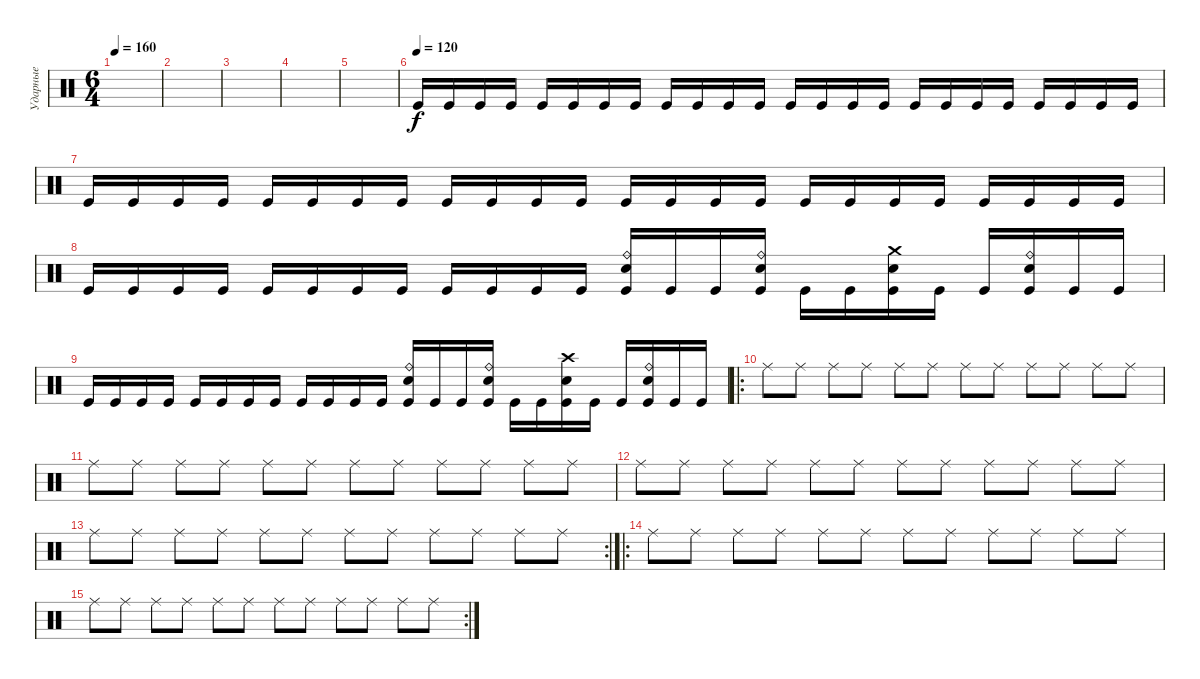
\track ("Ударные" "Ударные") {instrument percussion}
\staff {score}
\articulation defaults
\ts (6 4)
\tempo 160
\clef neutral
\ks c
|
|
|
|
|
\tempo (120)
"Kick (hit)".16 "Kick (hit)".16 "Kick (hit)".16 "Kick (hit)".16 "Kick (hit)".16 "Kick (hit)".16 "Kick (hit)".16 "Kick (hit)".16 "Kick (hit)".16 "Kick (hit)".16 "Kick (hit)".16 "Kick (hit)".16 "Kick (hit)".16 "Kick (hit)".16 "Kick (hit)".16 "Kick (hit)".16 "Kick (hit)".16 "Kick (hit)".16 "Kick (hit)".16 "Kick (hit)".16 "Kick (hit)".16 "Kick (hit)".16 "Kick (hit)".16 "Kick (hit)".16 |
"Kick (hit)".16 "Kick (hit)".16 "Kick (hit)".16 "Kick (hit)".16 "Kick (hit)".16 "Kick (hit)".16 "Kick (hit)".16 "Kick (hit)".16 "Kick (hit)".16 "Kick (hit)".16 "Kick (hit)".16 "Kick (hit)".16 "Kick (hit)".16 "Kick (hit)".16 "Kick (hit)".16 "Kick (hit)".16 "Kick (hit)".16 "Kick (hit)".16 "Kick (hit)".16 "Kick (hit)".16 "Kick (hit)".16 "Kick (hit)".16 "Kick (hit)".16 "Kick (hit)".16 |
"Kick (hit)".16 "Kick (hit)".16 "Kick (hit)".16 "Kick (hit)".16 "Kick (hit)".16 "Kick (hit)".16 "Kick (hit)".16 "Kick (hit)".16 "Kick (hit)".16 "Kick (hit)".16 "Kick (hit)".16 "Kick (hit)".16 ("Ride (bell)" "Electric Snare (hit)" "Kick (hit)").16 "Kick (hit)".16 "Kick (hit)".16 ("Ride (bell)" "Electric Snare (hit)" "Kick (hit)").16 "Kick (hit)".16 "Kick (hit)".16 ("Crash medium (hit)" "Electric Snare (hit)" "Kick (hit)").16 "Kick (hit)".16 "Kick (hit)".16 ("Ride (bell)" "Electric Snare (hit)" "Kick (hit)").16 "Kick (hit)".16 "Kick (hit)".16 |
"Kick (hit)".16 "Kick (hit)".16 "Kick (hit)".16 "Kick (hit)".16 "Kick (hit)".16 "Kick (hit)".16 "Kick (hit)".16 "Kick (hit)".16 "Kick (hit)".16 "Kick (hit)".16 "Kick (hit)".16 "Kick (hit)".16 ("Ride (bell)" "Electric Snare (hit)" "Kick (hit)").16 "Kick (hit)".16 "Kick (hit)".16 ("Ride (bell)" "Electric Snare (hit)" "Kick (hit)").16 "Kick (hit)".16 "Kick (hit)".16 ("Crash high (hit)" "Electric Snare (hit)" "Kick (hit)").16 "Kick (hit)".16 "Kick (hit)".16 ("Ride (bell)" "Electric Snare (hit)" "Kick (hit)").16 "Kick (hit)".16 "Kick (hit)".16 |
\ro "Ride (middle)".8 "Ride (middle)".8 "Ride (middle)".8 "Ride (middle)".8 "Ride (middle)".8 "Ride (middle)".8 "Ride (middle)".8 "Ride (middle)".8 "Ride (middle)".8 "Ride (middle)".8 "Ride (middle)".8 "Ride (middle)".8
|
"Ride (middle)".8 "Ride (middle)".8 "Ride (middle)".8 "Ride (middle)".8 "Ride (middle)".8 "Ride (middle)".8 "Ride (middle)".8 "Ride (middle)".8 "Ride (middle)".8 "Ride (middle)".8 "Ride (middle)".8 "Ride (middle)".8 |
"Ride (middle)".8 "Ride (middle)".8 "Ride (middle)".8 "Ride (middle)".8 "Ride (middle)".8 "Ride (middle)".8 "Ride (middle)".8 "Ride (middle)".8 "Ride (middle)".8 "Ride (middle)".8 "Ride (middle)".8 "Ride (middle)".8 |
\rc 2 "Ride (middle)".8 "Ride (middle)".8 "Ride (middle)".8 "Ride (middle)".8 "Ride (middle)".8 "Ride (middle)".8 "Ride (middle)".8 "Ride (middle)".8 "Ride (middle)".8 "Ride (middle)".8 "Ride (middle)".8 "Ride (middle)".8
|
\ro "Ride (middle)".8 "Ride (middle)".8 "Ride (middle)".8 "Ride (middle)".8 "Ride (middle)".8 "Ride (middle)".8 "Ride (middle)".8 "Ride (middle)".8 "Ride (middle)".8 "Ride (middle)".8 "Ride (middle)".8 "Ride (middle)".8
|
\rc 2 "Ride (middle)".8 "Ride (middle)".8 "Ride (middle)".8 "Ride (middle)".8 "Ride (middle)".8 "Ride (middle)".8 "Ride (middle)".8 "Ride (middle)".8 "Ride (middle)".8 "Ride (middle)".8 "Ride (middle)".8 "Ride (middle)".8
